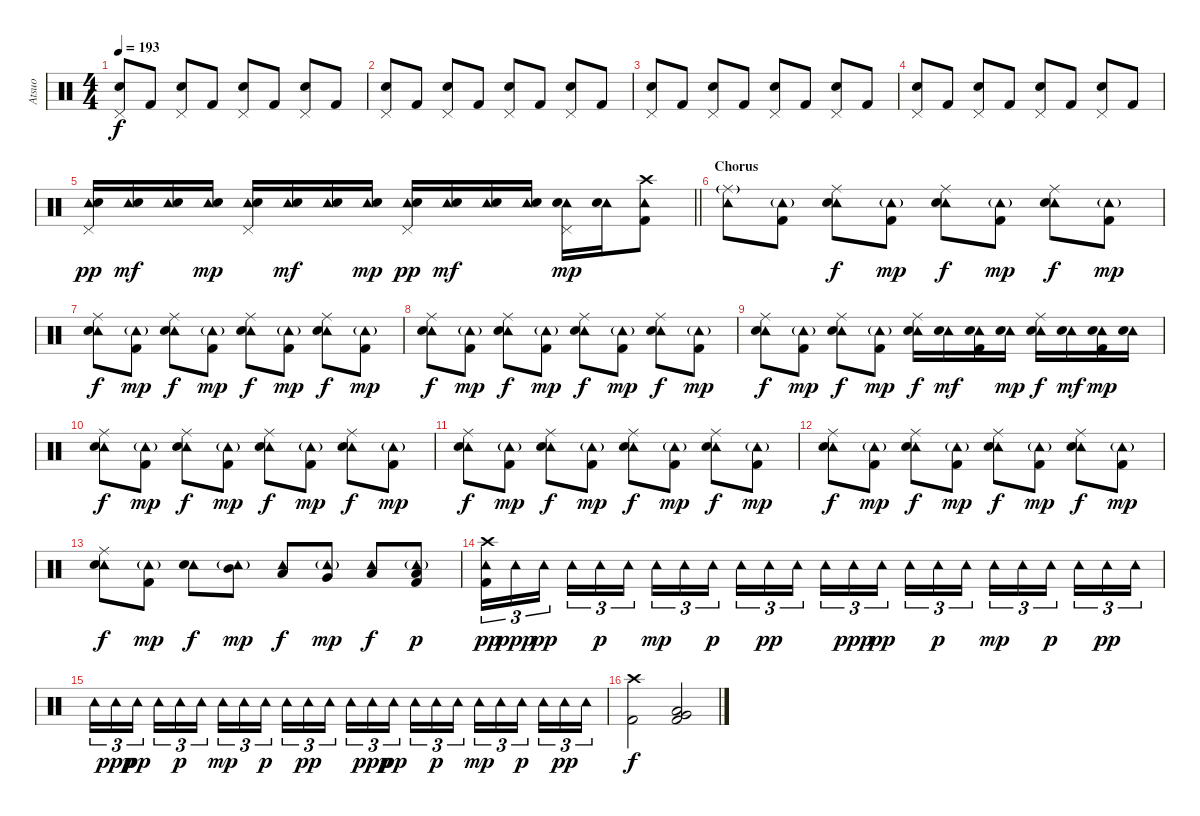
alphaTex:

\track ("Atsuo" "Atsuo") {instrument percussion}
\staff {score}
\articulation defaults
\ts (4 4)
\tempo 193
\clef neutral
\ks c
("Pedal Hi-Hat (hit)" "Electric Snare (hit)").8{dy f} "Kick (hit) 2".8 ("Pedal Hi-Hat (hit)" "Electric Snare (hit)").8 "Kick (hit) 2".8 ("Pedal Hi-Hat (hit)" "Electric Snare (hit)").8 "Kick (hit) 2".8 ("Pedal Hi-Hat (hit)" "Electric Snare (hit)").8 "Kick (hit) 2".8 |
("Pedal Hi-Hat (hit)" "Electric Snare (hit)").8 "Kick (hit) 2".8 ("Pedal Hi-Hat (hit)" "Electric Snare (hit)").8 "Kick (hit) 2".8 ("Pedal Hi-Hat (hit)" "Electric Snare (hit)").8 "Kick (hit) 2".8 ("Pedal Hi-Hat (hit)" "Electric Snare (hit)").8 "Kick (hit) 2".8 |
("Pedal Hi-Hat (hit)" "Electric Snare (hit)").8 "Kick (hit) 2".8 ("Pedal Hi-Hat (hit)" "Electric Snare (hit)").8 "Kick (hit) 2".8 ("Pedal Hi-Hat (hit)" "Electric Snare (hit)").8 "Kick (hit) 2".8 ("Pedal Hi-Hat (hit)" "Electric Snare (hit)").8 "Kick (hit) 2".8 |
("Pedal Hi-Hat (hit)" "Electric Snare (hit)").8 "Kick (hit) 2".8 ("Pedal Hi-Hat (hit)" "Electric Snare (hit)").8 "Kick (hit) 2".8 ("Pedal Hi-Hat (hit)" "Electric Snare (hit)").8 "Kick (hit) 2".8 ("Pedal Hi-Hat (hit)" "Electric Snare (hit)").8 "Kick (hit) 2".8 |
\barLineRight lightlight
("Pedal Hi-Hat (hit)" "Tambourine (hit)" "Electric Snare (hit)").16{dy pp} ("Tambourine (hit)" "Electric Snare (hit)").16{dy mf} ("Tambourine (hit)" "Electric Snare (hit)").16 ("Tambourine (hit)" "Electric Snare (hit)").16{dy mp} ("Pedal Hi-Hat (hit)" "Tambourine (hit)" "Electric Snare (hit)").16 ("Tambourine (hit)" "Electric Snare (hit)").16{dy mf} ("Tambourine (hit)" "Electric Snare (hit)").16 ("Tambourine (hit)" "Electric Snare (hit)").16{dy mp} ("Pedal Hi-Hat (hit)" "Tambourine (hit)" "Electric Snare (hit)").16{dy pp} ("Tambourine (hit)" "Electric Snare (hit)").16{dy mf} ("Tambourine (hit)" "Electric Snare (hit)").16 ("Tambourine (hit)" "Electric Snare (hit)").16 ("Pedal Hi-Hat (hit)" "Tambourine (hit)" "Electric Snare (hit)").16{dy mp} ("Tambourine (hit)" "Electric Snare (hit)").16 ("Tambourine (hit)" "Crash high (hit)" "Kick (hit) 2").8 |
\section ("" "Chorus")
("Ride (middle)"{g} "Tambourine (hit)").8 ("Tambourine (hit)"{g} "Kick (hit) 2").8 ("Ride (middle)" "Tambourine (hit)" "Electric Snare (hit)").8{dy f} ("Tambourine (hit)"{g} "Kick (hit) 2").8{dy mp} ("Ride (middle)" "Tambourine (hit)" "Electric Snare (hit)").8{dy f} ("Tambourine (hit)"{g} "Kick (hit) 2").8{dy mp} ("Ride (middle)" "Tambourine (hit)" "Electric Snare (hit)").8{dy f} ("Tambourine (hit)"{g} "Kick (hit) 2").8{dy mp} |
("Ride (middle)" "Tambourine (hit)" "Electric Snare (hit)").8{dy f} ("Tambourine (hit)"{g} "Kick (hit) 2").8{dy mp} ("Ride (middle)" "Tambourine (hit)" "Electric Snare (hit)").8{dy f} ("Tambourine (hit)"{g} "Kick (hit) 2").8{dy mp} ("Ride (middle)" "Tambourine (hit)" "Electric Snare (hit)").8{dy f} ("Tambourine (hit)"{g} "Kick (hit) 2").8{dy mp} ("Ride (middle)" "Tambourine (hit)" "Electric Snare (hit)").8{dy f} ("Tambourine (hit)"{g} "Kick (hit) 2").8{dy mp} |
("Ride (middle)" "Tambourine (hit)" "Electric Snare (hit)").8{dy f} ("Tambourine (hit)"{g} "Kick (hit) 2").8{dy mp} ("Ride (middle)" "Tambourine (hit)" "Electric Snare (hit)").8{dy f} ("Tambourine (hit)"{g} "Kick (hit) 2").8{dy mp} ("Ride (middle)" "Tambourine (hit)" "Electric Snare (hit)").8{dy f} ("Tambourine (hit)"{g} "Kick (hit) 2").8{dy mp} ("Ride (middle)" "Tambourine (hit)" "Electric Snare (hit)").8{dy f} ("Tambourine (hit)"{g} "Kick (hit) 2").8{dy mp} |
("Ride (middle)" "Tambourine (hit)" "Electric Snare (hit)").8{dy f} ("Tambourine (hit)"{g} "Kick (hit) 2").8{dy mp} ("Ride (middle)" "Tambourine (hit)" "Electric Snare (hit)").8{dy f} ("Tambourine (hit)"{g} "Kick (hit) 2").8{dy mp} ("Ride (middle)" "Tambourine (hit)" "Electric Snare (hit)").16{dy f} ("Tambourine (hit)" "Electric Snare (hit)").16{dy mf} ("Tambourine (hit)" "Electric Snare (hit)" "Kick (hit) 2").16 ("Tambourine (hit)" "Electric Snare (hit)").16{dy mp} ("Ride (middle)" "Tambourine (hit)" "Electric Snare (hit)").16{dy f} ("Tambourine (hit)" "Electric Snare (hit)").16{dy mf} ("Tambourine (hit)" "Electric Snare (hit)" "Kick (hit) 2").16{dy mp} ("Tambourine (hit)" "Electric Snare (hit)").16 |
("Ride (middle)" "Tambourine (hit)" "Electric Snare (hit)").8{dy f} ("Tambourine (hit)"{g} "Kick (hit) 2").8{dy mp} ("Ride (middle)" "Tambourine (hit)" "Electric Snare (hit)").8{dy f} ("Tambourine (hit)"{g} "Kick (hit) 2").8{dy mp} ("Ride (middle)" "Tambourine (hit)" "Electric Snare (hit)").8{dy f} ("Tambourine (hit)"{g} "Kick (hit) 2").8{dy mp} ("Ride (middle)" "Tambourine (hit)" "Electric Snare (hit)").8{dy f} ("Tambourine (hit)"{g} "Kick (hit) 2").8{dy mp} |
("Ride (middle)" "Tambourine (hit)" "Electric Snare (hit)").8{dy f} ("Tambourine (hit)"{g} "Kick (hit) 2").8{dy mp} ("Ride (middle)" "Tambourine (hit)" "Electric Snare (hit)").8{dy f} ("Tambourine (hit)"{g} "Kick (hit) 2").8{dy mp} ("Ride (middle)" "Tambourine (hit)" "Electric Snare (hit)").8{dy f} ("Tambourine (hit)"{g} "Kick (hit) 2").8{dy mp} ("Ride (middle)" "Tambourine (hit)" "Electric Snare (hit)").8{dy f} ("Tambourine (hit)"{g} "Kick (hit) 2").8{dy mp} |
("Ride (middle)" "Tambourine (hit)" "Electric Snare (hit)").8{dy f} ("Tambourine (hit)"{g} "Kick (hit) 2").8{dy mp} ("Ride (middle)" "Tambourine (hit)" "Electric Snare (hit)").8{dy f} ("Tambourine (hit)"{g} "Kick (hit) 2").8{dy mp} ("Ride (middle)" "Tambourine (hit)" "Electric Snare (hit)").8{dy f} ("Tambourine (hit)"{g} "Kick (hit) 2").8{dy mp} ("Ride (middle)" "Tambourine (hit)" "Electric Snare (hit)").8{dy f} ("Tambourine (hit)"{g} "Kick (hit) 2").8{dy mp} |
("Ride (middle)" "Tambourine (hit)" "Electric Snare (hit)").8{dy f} ("Tambourine (hit)"{g} "Kick (hit) 2").8{dy mp} ("Tambourine (hit)" "Electric Snare (hit)").8{dy f} ("Tambourine (hit)"{g} "Mid Tom (hit)").8{dy mp} ("Tambourine (hit)" "Low Tom (hit)").8{dy f} ("Tambourine (hit)"{g} "Very Low Tom (hit)").8{dy mp} ("Tambourine (hit)" "Low Floor Tom (hit)").8{dy f} ("Tambourine (hit)"{g} "Low Floor Tom (hit)" "Kick (hit) 2").8{dy p} |
("Crash high (hit)" "Tambourine (hit)" "Kick (hit) 2").16{tu (3 2) dy pp} "Tambourine (hit)".16{tu (3 2) dy ppp} "Tambourine (hit)".16{tu (3 2) dy pp beam splitsecondary} "Tambourine (hit)".16{tu (3 2)} "Tambourine (hit)".16{tu (3 2) dy p} "Tambourine (hit)".16{tu (3 2)} "Tambourine (hit)".16{tu (3 2) dy mp} "Tambourine (hit)".16{tu (3 2)} "Tambourine (hit)".16{tu (3 2) dy p beam splitsecondary} "Tambourine (hit)".16{tu (3 2)} "Tambourine (hit)".16{tu (3 2) dy pp} "Tambourine (hit)".16{tu (3 2)} "Tambourine (hit)".16{tu (3 2)} "Tambourine (hit)".16{tu (3 2) dy ppp} "Tambourine (hit)".16{tu (3 2) dy pp beam splitsecondary} "Tambourine (hit)".16{tu (3 2)} "Tambourine (hit)".16{tu (3 2) dy p} "Tambourine (hit)".16{tu (3 2)} "Tambourine (hit)".16{tu (3 2) dy mp} "Tambourine (hit)".16{tu (3 2)} "Tambourine (hit)".16{tu (3 2) dy p beam splitsecondary} "Tambourine (hit)".16{tu (3 2)} "Tambourine (hit)".16{tu (3 2) dy pp} "Tambourine (hit)".16{tu (3 2)} |
"Tambourine (hit)".16{tu (3 2)} "Tambourine (hit)".16{tu (3 2) dy ppp} "Tambourine (hit)".16{tu (3 2) dy pp beam splitsecondary} "Tambourine (hit)".16{tu (3 2)} "Tambourine (hit)".16{tu (3 2) dy p} "Tambourine (hit)".16{tu (3 2)} "Tambourine (hit)".16{tu (3 2) dy mp} "Tambourine (hit)".16{tu (3 2)} "Tambourine (hit)".16{tu (3 2) dy p beam splitsecondary} "Tambourine (hit)".16{tu (3 2)} "Tambourine (hit)".16{tu (3 2) dy pp} "Tambourine (hit)".16{tu (3 2)} "Tambourine (hit)".16{tu (3 2)} "Tambourine (hit)".16{tu (3 2) dy ppp} "Tambourine (hit)".16{tu (3 2) dy pp beam splitsecondary} "Tambourine (hit)".16{tu (3 2)} "Tambourine (hit)".16{tu (3 2) dy p} "Tambourine (hit)".16{tu (3 2)} "Tambourine (hit)".16{tu (3 2) dy mp} "Tambourine (hit)".16{tu (3 2)} "Tambourine (hit)".16{tu (3 2) dy p beam splitsecondary} "Tambourine (hit)".16{tu (3 2)} "Tambourine (hit)".16{tu (3 2) dy pp} "Tambourine (hit)".16{tu (3 2)} |
("Crash high (hit)" "Kick (hit) 2").2{dy f} ("Very Low Tom (hit)" "Low Floor Tom (hit)" "Kick (hit) 2").2
